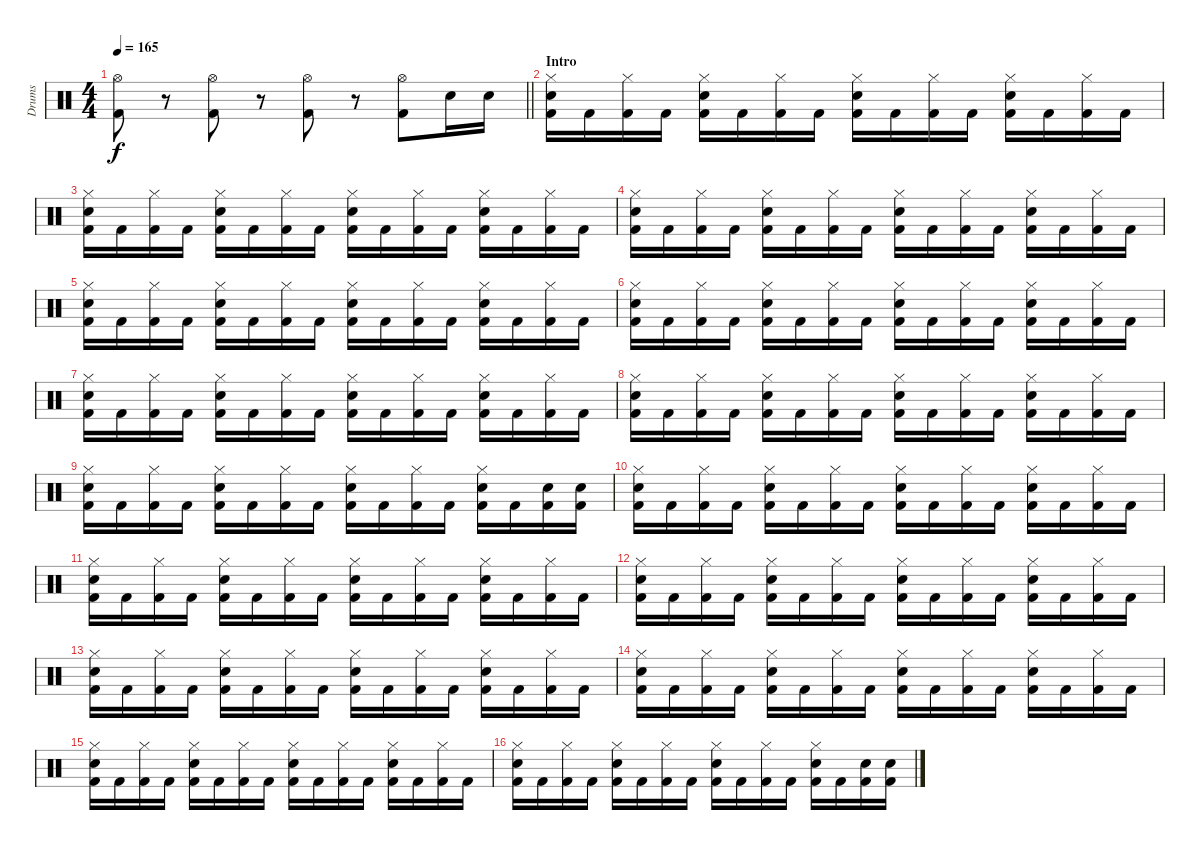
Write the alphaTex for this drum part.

\track ("Drums" "Drums") {instrument percussion}
\staff {score}
\articulation defaults
\ts (4 4)
\tempo 165
\clef neutral
\barLineRight lightlight
\ks c
("Hi-Hat (open)" "Kick (hit) 2").8{dy f} r.8 ("Hi-Hat (open)" "Kick (hit) 2").8 r.8 ("Hi-Hat (open)" "Kick (hit) 2").8 r.8 ("Hi-Hat (open)" "Kick (hit) 2").8 "Snare (hit) 2".16 "Snare (hit) 2".16 |
\section ("" "Intro")
("Hi-Hat (closed)" "Snare (hit) 2" "Kick (hit) 2").16 "Kick (hit) 2".16 ("Hi-Hat (closed)" "Kick (hit) 2").16 "Kick (hit) 2".16 ("Hi-Hat (closed)" "Snare (hit) 2" "Kick (hit) 2").16 "Kick (hit) 2".16 ("Hi-Hat (closed)" "Kick (hit) 2").16 "Kick (hit) 2".16 ("Hi-Hat (closed)" "Snare (hit) 2" "Kick (hit) 2").16 "Kick (hit) 2".16 ("Hi-Hat (closed)" "Kick (hit) 2").16 "Kick (hit) 2".16 ("Hi-Hat (closed)" "Snare (hit) 2" "Kick (hit) 2").16 "Kick (hit) 2".16 ("Hi-Hat (closed)" "Kick (hit) 2").16 "Kick (hit) 2".16 |
("Hi-Hat (closed)" "Snare (hit) 2" "Kick (hit) 2").16 "Kick (hit) 2".16 ("Hi-Hat (closed)" "Kick (hit) 2").16 "Kick (hit) 2".16 ("Hi-Hat (closed)" "Snare (hit) 2" "Kick (hit) 2").16 "Kick (hit) 2".16 ("Hi-Hat (closed)" "Kick (hit) 2").16 "Kick (hit) 2".16 ("Hi-Hat (closed)" "Snare (hit) 2" "Kick (hit) 2").16 "Kick (hit) 2".16 ("Hi-Hat (closed)" "Kick (hit) 2").16 "Kick (hit) 2".16 ("Hi-Hat (closed)" "Snare (hit) 2" "Kick (hit) 2").16 "Kick (hit) 2".16 ("Hi-Hat (closed)" "Kick (hit) 2").16 "Kick (hit) 2".16 |
("Hi-Hat (closed)" "Snare (hit) 2" "Kick (hit) 2").16 "Kick (hit) 2".16 ("Hi-Hat (closed)" "Kick (hit) 2").16 "Kick (hit) 2".16 ("Hi-Hat (closed)" "Snare (hit) 2" "Kick (hit) 2").16 "Kick (hit) 2".16 ("Hi-Hat (closed)" "Kick (hit) 2").16 "Kick (hit) 2".16 ("Hi-Hat (closed)" "Snare (hit) 2" "Kick (hit) 2").16 "Kick (hit) 2".16 ("Hi-Hat (closed)" "Kick (hit) 2").16 "Kick (hit) 2".16 ("Hi-Hat (closed)" "Snare (hit) 2" "Kick (hit) 2").16 "Kick (hit) 2".16 ("Hi-Hat (closed)" "Kick (hit) 2").16 "Kick (hit) 2".16 |
("Hi-Hat (closed)" "Snare (hit) 2" "Kick (hit) 2").16 "Kick (hit) 2".16 ("Hi-Hat (closed)" "Kick (hit) 2").16 "Kick (hit) 2".16 ("Hi-Hat (closed)" "Snare (hit) 2" "Kick (hit) 2").16 "Kick (hit) 2".16 ("Hi-Hat (closed)" "Kick (hit) 2").16 "Kick (hit) 2".16 ("Hi-Hat (closed)" "Snare (hit) 2" "Kick (hit) 2").16 "Kick (hit) 2".16 ("Hi-Hat (closed)" "Kick (hit) 2").16 "Kick (hit) 2".16 ("Hi-Hat (closed)" "Snare (hit) 2" "Kick (hit) 2").16 "Kick (hit) 2".16 ("Hi-Hat (closed)" "Kick (hit) 2").16 "Kick (hit) 2".16 |
("Hi-Hat (closed)" "Snare (hit) 2" "Kick (hit) 2").16 "Kick (hit) 2".16 ("Hi-Hat (closed)" "Kick (hit) 2").16 "Kick (hit) 2".16 ("Hi-Hat (closed)" "Snare (hit) 2" "Kick (hit) 2").16 "Kick (hit) 2".16 ("Hi-Hat (closed)" "Kick (hit) 2").16 "Kick (hit) 2".16 ("Hi-Hat (closed)" "Snare (hit) 2" "Kick (hit) 2").16 "Kick (hit) 2".16 ("Hi-Hat (closed)" "Kick (hit) 2").16 "Kick (hit) 2".16 ("Hi-Hat (closed)" "Snare (hit) 2" "Kick (hit) 2").16 "Kick (hit) 2".16 ("Hi-Hat (closed)" "Kick (hit) 2").16 "Kick (hit) 2".16 |
("Hi-Hat (closed)" "Snare (hit) 2" "Kick (hit) 2").16 "Kick (hit) 2".16 ("Hi-Hat (closed)" "Kick (hit) 2").16 "Kick (hit) 2".16 ("Hi-Hat (closed)" "Snare (hit) 2" "Kick (hit) 2").16 "Kick (hit) 2".16 ("Hi-Hat (closed)" "Kick (hit) 2").16 "Kick (hit) 2".16 ("Hi-Hat (closed)" "Snare (hit) 2" "Kick (hit) 2").16 "Kick (hit) 2".16 ("Hi-Hat (closed)" "Kick (hit) 2").16 "Kick (hit) 2".16 ("Hi-Hat (closed)" "Snare (hit) 2" "Kick (hit) 2").16 "Kick (hit) 2".16 ("Hi-Hat (closed)" "Kick (hit) 2").16 "Kick (hit) 2".16 |
("Hi-Hat (closed)" "Snare (hit) 2" "Kick (hit) 2").16 "Kick (hit) 2".16 ("Hi-Hat (closed)" "Kick (hit) 2").16 "Kick (hit) 2".16 ("Hi-Hat (closed)" "Snare (hit) 2" "Kick (hit) 2").16 "Kick (hit) 2".16 ("Hi-Hat (closed)" "Kick (hit) 2").16 "Kick (hit) 2".16 ("Hi-Hat (closed)" "Snare (hit) 2" "Kick (hit) 2").16 "Kick (hit) 2".16 ("Hi-Hat (closed)" "Kick (hit) 2").16 "Kick (hit) 2".16 ("Hi-Hat (closed)" "Snare (hit) 2" "Kick (hit) 2").16 "Kick (hit) 2".16 ("Hi-Hat (closed)" "Kick (hit) 2").16 "Kick (hit) 2".16 |
("Hi-Hat (closed)" "Snare (hit) 2" "Kick (hit) 2").16 "Kick (hit) 2".16 ("Hi-Hat (closed)" "Kick (hit) 2").16 "Kick (hit) 2".16 ("Hi-Hat (closed)" "Snare (hit) 2" "Kick (hit) 2").16 "Kick (hit) 2".16 ("Hi-Hat (closed)" "Kick (hit) 2").16 "Kick (hit) 2".16 ("Hi-Hat (closed)" "Snare (hit) 2" "Kick (hit) 2").16 "Kick (hit) 2".16 ("Hi-Hat (closed)" "Kick (hit) 2").16 "Kick (hit) 2".16 ("Hi-Hat (closed)" "Snare (hit) 2" "Kick (hit) 2").16 "Kick (hit) 2".16 ("Snare (hit) 2" "Kick (hit) 2").16 ("Snare (hit) 2" "Kick (hit) 2").16 |
("Hi-Hat (closed)" "Snare (hit) 2" "Kick (hit) 2").16 "Kick (hit) 2".16 ("Hi-Hat (closed)" "Kick (hit) 2").16 "Kick (hit) 2".16 ("Hi-Hat (closed)" "Snare (hit) 2" "Kick (hit) 2").16 "Kick (hit) 2".16 ("Hi-Hat (closed)" "Kick (hit) 2").16 "Kick (hit) 2".16 ("Hi-Hat (closed)" "Snare (hit) 2" "Kick (hit) 2").16 "Kick (hit) 2".16 ("Hi-Hat (closed)" "Kick (hit) 2").16 "Kick (hit) 2".16 ("Hi-Hat (closed)" "Snare (hit) 2" "Kick (hit) 2").16 "Kick (hit) 2".16 ("Hi-Hat (closed)" "Kick (hit) 2").16 "Kick (hit) 2".16 |
("Hi-Hat (closed)" "Snare (hit) 2" "Kick (hit) 2").16 "Kick (hit) 2".16 ("Hi-Hat (closed)" "Kick (hit) 2").16 "Kick (hit) 2".16 ("Hi-Hat (closed)" "Snare (hit) 2" "Kick (hit) 2").16 "Kick (hit) 2".16 ("Hi-Hat (closed)" "Kick (hit) 2").16 "Kick (hit) 2".16 ("Hi-Hat (closed)" "Snare (hit) 2" "Kick (hit) 2").16 "Kick (hit) 2".16 ("Hi-Hat (closed)" "Kick (hit) 2").16 "Kick (hit) 2".16 ("Hi-Hat (closed)" "Snare (hit) 2" "Kick (hit) 2").16 "Kick (hit) 2".16 ("Hi-Hat (closed)" "Kick (hit) 2").16 "Kick (hit) 2".16 |
("Hi-Hat (closed)" "Snare (hit) 2" "Kick (hit) 2").16 "Kick (hit) 2".16 ("Hi-Hat (closed)" "Kick (hit) 2").16 "Kick (hit) 2".16 ("Hi-Hat (closed)" "Snare (hit) 2" "Kick (hit) 2").16 "Kick (hit) 2".16 ("Hi-Hat (closed)" "Kick (hit) 2").16 "Kick (hit) 2".16 ("Hi-Hat (closed)" "Snare (hit) 2" "Kick (hit) 2").16 "Kick (hit) 2".16 ("Hi-Hat (closed)" "Kick (hit) 2").16 "Kick (hit) 2".16 ("Hi-Hat (closed)" "Snare (hit) 2" "Kick (hit) 2").16 "Kick (hit) 2".16 ("Hi-Hat (closed)" "Kick (hit) 2").16 "Kick (hit) 2".16 |
("Hi-Hat (closed)" "Snare (hit) 2" "Kick (hit) 2").16 "Kick (hit) 2".16 ("Hi-Hat (closed)" "Kick (hit) 2").16 "Kick (hit) 2".16 ("Hi-Hat (closed)" "Snare (hit) 2" "Kick (hit) 2").16 "Kick (hit) 2".16 ("Hi-Hat (closed)" "Kick (hit) 2").16 "Kick (hit) 2".16 ("Hi-Hat (closed)" "Snare (hit) 2" "Kick (hit) 2").16 "Kick (hit) 2".16 ("Hi-Hat (closed)" "Kick (hit) 2").16 "Kick (hit) 2".16 ("Hi-Hat (closed)" "Snare (hit) 2" "Kick (hit) 2").16 "Kick (hit) 2".16 ("Hi-Hat (closed)" "Kick (hit) 2").16 "Kick (hit) 2".16 |
("Hi-Hat (closed)" "Snare (hit) 2" "Kick (hit) 2").16 "Kick (hit) 2".16 ("Hi-Hat (closed)" "Kick (hit) 2").16 "Kick (hit) 2".16 ("Hi-Hat (closed)" "Snare (hit) 2" "Kick (hit) 2").16 "Kick (hit) 2".16 ("Hi-Hat (closed)" "Kick (hit) 2").16 "Kick (hit) 2".16 ("Hi-Hat (closed)" "Snare (hit) 2" "Kick (hit) 2").16 "Kick (hit) 2".16 ("Hi-Hat (closed)" "Kick (hit) 2").16 "Kick (hit) 2".16 ("Hi-Hat (closed)" "Snare (hit) 2" "Kick (hit) 2").16 "Kick (hit) 2".16 ("Hi-Hat (closed)" "Kick (hit) 2").16 "Kick (hit) 2".16 |
("Hi-Hat (closed)" "Snare (hit) 2" "Kick (hit) 2").16 "Kick (hit) 2".16 ("Hi-Hat (closed)" "Kick (hit) 2").16 "Kick (hit) 2".16 ("Hi-Hat (closed)" "Snare (hit) 2" "Kick (hit) 2").16 "Kick (hit) 2".16 ("Hi-Hat (closed)" "Kick (hit) 2").16 "Kick (hit) 2".16 ("Hi-Hat (closed)" "Snare (hit) 2" "Kick (hit) 2").16 "Kick (hit) 2".16 ("Hi-Hat (closed)" "Kick (hit) 2").16 "Kick (hit) 2".16 ("Hi-Hat (closed)" "Snare (hit) 2" "Kick (hit) 2").16 "Kick (hit) 2".16 ("Hi-Hat (closed)" "Kick (hit) 2").16 "Kick (hit) 2".16 |
("Hi-Hat (closed)" "Snare (hit) 2" "Kick (hit) 2").16 "Kick (hit) 2".16 ("Hi-Hat (closed)" "Kick (hit) 2").16 "Kick (hit) 2".16 ("Hi-Hat (closed)" "Snare (hit) 2" "Kick (hit) 2").16 "Kick (hit) 2".16 ("Hi-Hat (closed)" "Kick (hit) 2").16 "Kick (hit) 2".16 ("Hi-Hat (closed)" "Snare (hit) 2" "Kick (hit) 2").16 "Kick (hit) 2".16 ("Hi-Hat (closed)" "Kick (hit) 2").16 "Kick (hit) 2".16 ("Hi-Hat (closed)" "Snare (hit) 2" "Kick (hit) 2").16 "Kick (hit) 2".16 ("Snare (hit) 2" "Kick (hit) 2").16 ("Snare (hit) 2" "Kick (hit) 2").16
